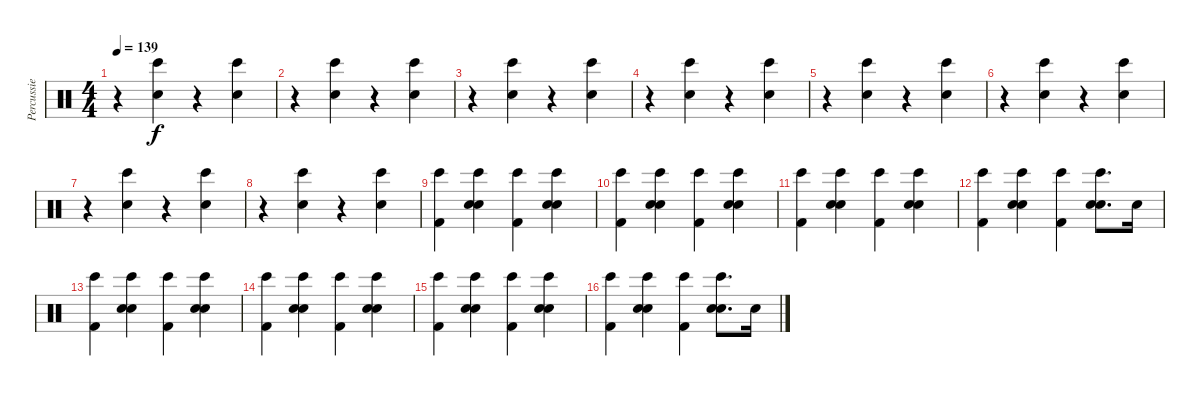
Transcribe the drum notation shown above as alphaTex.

\track ("Percussie" "Percussie") {instrument percussion}
\staff {score}
\articulation defaults
\ts (4 4)
\tempo 139
\clef neutral
\ks c
r.4{dy f} ("Bongo High (hit)" "Hand Clap (hit)").4 r.4 ("Bongo High (hit)" "Hand Clap (hit)").4 |
r.4 ("Bongo High (hit)" "Hand Clap (hit)").4 r.4 ("Bongo High (hit)" "Hand Clap (hit)").4 |
r.4 ("Bongo High (hit)" "Hand Clap (hit)").4 r.4 ("Bongo High (hit)" "Hand Clap (hit)").4 |
r.4 ("Bongo High (hit)" "Hand Clap (hit)").4 r.4 ("Bongo High (hit)" "Hand Clap (hit)").4 |
r.4 ("Bongo High (hit)" "Hand Clap (hit)").4 r.4 ("Bongo High (hit)" "Hand Clap (hit)").4 |
r.4 ("Bongo High (hit)" "Hand Clap (hit)").4 r.4 ("Bongo High (hit)" "Hand Clap (hit)").4 |
r.4 ("Bongo High (hit)" "Hand Clap (hit)").4 r.4 ("Bongo High (hit)" "Hand Clap (hit)").4 |
r.4 ("Bongo High (hit)" "Hand Clap (hit)").4 r.4 ("Bongo High (hit)" "Hand Clap (hit)").4 |
("Bongo High (hit)" "Kick (hit) 2").4 ("Bongo High (hit)" "Hand Clap (hit)" "Electric Snare (hit)").4 ("Bongo High (hit)" "Kick (hit) 2").4 ("Bongo High (hit)" "Hand Clap (hit)" "Electric Snare (hit)").4 |
("Bongo High (hit)" "Kick (hit) 2").4 ("Bongo High (hit)" "Hand Clap (hit)" "Electric Snare (hit)").4 ("Bongo High (hit)" "Kick (hit) 2").4 ("Bongo High (hit)" "Hand Clap (hit)" "Electric Snare (hit)").4 |
("Bongo High (hit)" "Kick (hit) 2").4 ("Bongo High (hit)" "Hand Clap (hit)" "Electric Snare (hit)").4 ("Bongo High (hit)" "Kick (hit) 2").4 ("Bongo High (hit)" "Hand Clap (hit)" "Electric Snare (hit)").4 |
("Bongo High (hit)" "Kick (hit) 2").4 ("Bongo High (hit)" "Hand Clap (hit)" "Electric Snare (hit)").4 ("Bongo High (hit)" "Kick (hit) 2").4 ("Bongo High (hit)" "Hand Clap (hit)" "Electric Snare (hit)").8{d} "Hand Clap (hit)".16 |
("Bongo High (hit)" "Kick (hit) 2").4 ("Bongo High (hit)" "Hand Clap (hit)" "Electric Snare (hit)").4 ("Bongo High (hit)" "Kick (hit) 2").4 ("Bongo High (hit)" "Hand Clap (hit)" "Electric Snare (hit)").4 |
("Bongo High (hit)" "Kick (hit) 2").4 ("Bongo High (hit)" "Hand Clap (hit)" "Electric Snare (hit)").4 ("Bongo High (hit)" "Kick (hit) 2").4 ("Bongo High (hit)" "Hand Clap (hit)" "Electric Snare (hit)").4 |
("Bongo High (hit)" "Kick (hit) 2").4 ("Bongo High (hit)" "Hand Clap (hit)" "Electric Snare (hit)").4 ("Bongo High (hit)" "Kick (hit) 2").4 ("Bongo High (hit)" "Hand Clap (hit)" "Electric Snare (hit)").4 |
("Bongo High (hit)" "Kick (hit) 2").4 ("Bongo High (hit)" "Hand Clap (hit)" "Electric Snare (hit)").4 ("Bongo High (hit)" "Kick (hit) 2").4 ("Bongo High (hit)" "Hand Clap (hit)" "Electric Snare (hit)").8{d} "Hand Clap (hit)".16
